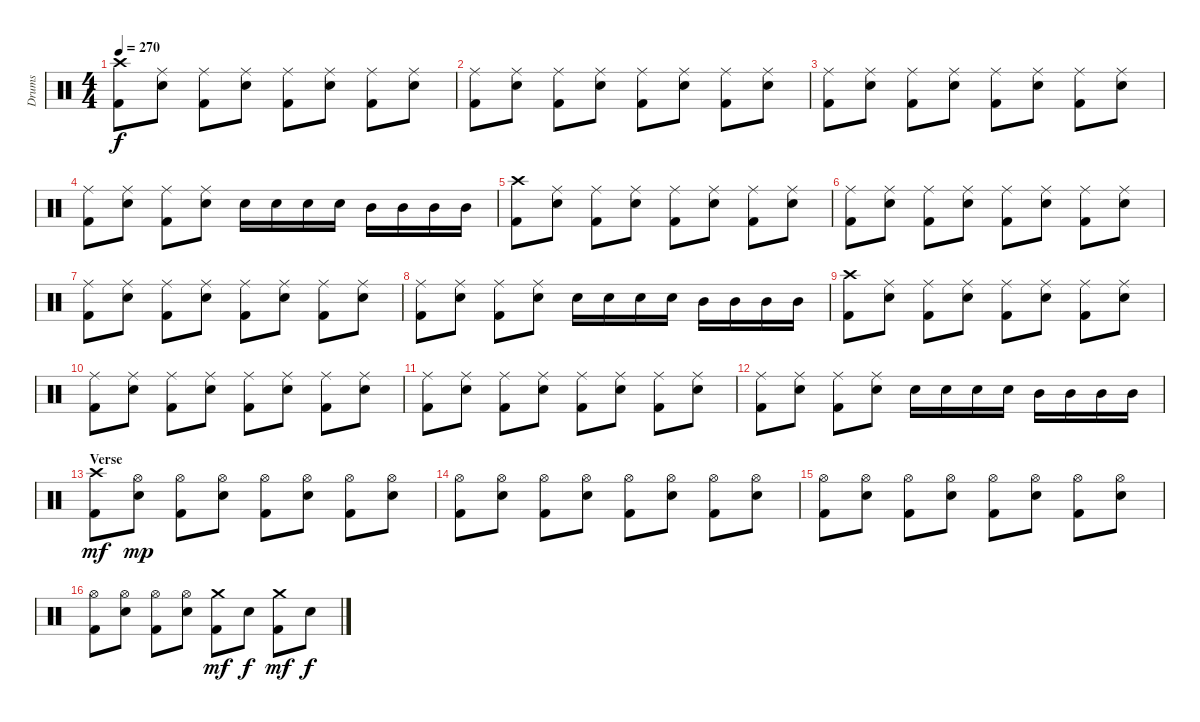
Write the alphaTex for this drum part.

\track ("Drums" "Drums") {instrument percussion}
\staff {score}
\articulation defaults
\ts (4 4)
\tempo 270
\clef neutral
\ks c
("Crash high (hit)" "Kick (hit) 2").8{dy f} ("Ride (middle)" "Snare (hit) 2").8 ("Ride (middle)" "Kick (hit) 2").8 ("Ride (middle)" "Snare (hit) 2").8 ("Ride (middle)" "Kick (hit) 2").8 ("Ride (middle)" "Snare (hit) 2").8 ("Ride (middle)" "Kick (hit) 2").8 ("Ride (middle)" "Snare (hit) 2").8 |
("Ride (middle)" "Kick (hit) 2").8 ("Ride (middle)" "Snare (hit) 2").8 ("Ride (middle)" "Kick (hit) 2").8 ("Ride (middle)" "Snare (hit) 2").8 ("Ride (middle)" "Kick (hit) 2").8 ("Ride (middle)" "Snare (hit) 2").8 ("Ride (middle)" "Kick (hit) 2").8 ("Ride (middle)" "Snare (hit) 2").8 |
("Ride (middle)" "Kick (hit) 2").8 ("Ride (middle)" "Snare (hit) 2").8 ("Ride (middle)" "Kick (hit) 2").8 ("Ride (middle)" "Snare (hit) 2").8 ("Ride (middle)" "Kick (hit) 2").8 ("Ride (middle)" "Snare (hit) 2").8 ("Ride (middle)" "Kick (hit) 2").8 ("Ride (middle)" "Snare (hit) 2").8 |
("Ride (middle)" "Kick (hit) 2").8 ("Ride (middle)" "Snare (hit) 2").8 ("Ride (middle)" "Kick (hit) 2").8 ("Ride (middle)" "Snare (hit) 2").8 "Snare (hit) 2".16 "Snare (hit) 2".16 "Snare (hit) 2".16 "Snare (hit) 2".16 "Mid Tom (hit)".16 "Mid Tom (hit)".16 "Mid Tom (hit)".16 "Mid Tom (hit)".16 |
("Crash high (hit)" "Kick (hit) 2").8 ("Ride (middle)" "Snare (hit) 2").8 ("Ride (middle)" "Kick (hit) 2").8 ("Ride (middle)" "Snare (hit) 2").8 ("Ride (middle)" "Kick (hit) 2").8 ("Ride (middle)" "Snare (hit) 2").8 ("Ride (middle)" "Kick (hit) 2").8 ("Ride (middle)" "Snare (hit) 2").8 |
("Ride (middle)" "Kick (hit) 2").8 ("Ride (middle)" "Snare (hit) 2").8 ("Ride (middle)" "Kick (hit) 2").8 ("Ride (middle)" "Snare (hit) 2").8 ("Ride (middle)" "Kick (hit) 2").8 ("Ride (middle)" "Snare (hit) 2").8 ("Ride (middle)" "Kick (hit) 2").8 ("Ride (middle)" "Snare (hit) 2").8 |
("Ride (middle)" "Kick (hit) 2").8 ("Ride (middle)" "Snare (hit) 2").8 ("Ride (middle)" "Kick (hit) 2").8 ("Ride (middle)" "Snare (hit) 2").8 ("Ride (middle)" "Kick (hit) 2").8 ("Ride (middle)" "Snare (hit) 2").8 ("Ride (middle)" "Kick (hit) 2").8 ("Ride (middle)" "Snare (hit) 2").8 |
("Ride (middle)" "Kick (hit) 2").8 ("Ride (middle)" "Snare (hit) 2").8 ("Ride (middle)" "Kick (hit) 2").8 ("Ride (middle)" "Snare (hit) 2").8 "Snare (hit) 2".16 "Snare (hit) 2".16 "Snare (hit) 2".16 "Snare (hit) 2".16 "Mid Tom (hit)".16 "Mid Tom (hit)".16 "Mid Tom (hit)".16 "Mid Tom (hit)".16 |
("Crash high (hit)" "Kick (hit) 2").8 ("Ride (middle)" "Snare (hit) 2").8 ("Ride (middle)" "Kick (hit) 2").8 ("Ride (middle)" "Snare (hit) 2").8 ("Ride (middle)" "Kick (hit) 2").8 ("Ride (middle)" "Snare (hit) 2").8 ("Ride (middle)" "Kick (hit) 2").8 ("Ride (middle)" "Snare (hit) 2").8 |
("Ride (middle)" "Kick (hit) 2").8 ("Ride (middle)" "Snare (hit) 2").8 ("Ride (middle)" "Kick (hit) 2").8 ("Ride (middle)" "Snare (hit) 2").8 ("Ride (middle)" "Kick (hit) 2").8 ("Ride (middle)" "Snare (hit) 2").8 ("Ride (middle)" "Kick (hit) 2").8 ("Ride (middle)" "Snare (hit) 2").8 |
("Ride (middle)" "Kick (hit) 2").8 ("Ride (middle)" "Snare (hit) 2").8 ("Ride (middle)" "Kick (hit) 2").8 ("Ride (middle)" "Snare (hit) 2").8 ("Ride (middle)" "Kick (hit) 2").8 ("Ride (middle)" "Snare (hit) 2").8 ("Ride (middle)" "Kick (hit) 2").8 ("Ride (middle)" "Snare (hit) 2").8 |
("Ride (middle)" "Kick (hit) 2").8 ("Ride (middle)" "Snare (hit) 2").8 ("Ride (middle)" "Kick (hit) 2").8 ("Ride (middle)" "Snare (hit) 2").8 "Snare (hit) 2".16 "Snare (hit) 2".16 "Snare (hit) 2".16 "Snare (hit) 2".16 "Mid Tom (hit)".16 "Mid Tom (hit)".16 "Mid Tom (hit)".16 "Mid Tom (hit)".16 |
\section ("" "Verse")
("Crash high (hit)" "Kick (hit) 2").8{dy mf} ("Hi-Hat (open)" "Snare (hit) 2").8{dy mp} ("Hi-Hat (open)" "Kick (hit) 2").8 ("Hi-Hat (open)" "Snare (hit) 2").8 ("Hi-Hat (open)" "Kick (hit) 2").8 ("Hi-Hat (open)" "Snare (hit) 2").8 ("Hi-Hat (open)" "Kick (hit) 2").8 ("Hi-Hat (open)" "Snare (hit) 2").8 |
("Hi-Hat (open)" "Kick (hit) 2").8 ("Hi-Hat (open)" "Snare (hit) 2").8 ("Hi-Hat (open)" "Kick (hit) 2").8 ("Hi-Hat (open)" "Snare (hit) 2").8 ("Hi-Hat (open)" "Kick (hit) 2").8 ("Hi-Hat (open)" "Snare (hit) 2").8 ("Hi-Hat (open)" "Kick (hit) 2").8 ("Hi-Hat (open)" "Snare (hit) 2").8 |
("Hi-Hat (open)" "Kick (hit) 2").8 ("Hi-Hat (open)" "Snare (hit) 2").8 ("Hi-Hat (open)" "Kick (hit) 2").8 ("Hi-Hat (open)" "Snare (hit) 2").8 ("Hi-Hat (open)" "Kick (hit) 2").8 ("Hi-Hat (open)" "Snare (hit) 2").8 ("Hi-Hat (open)" "Kick (hit) 2").8 ("Hi-Hat (open)" "Snare (hit) 2").8 |
("Hi-Hat (open)" "Kick (hit) 2").8 ("Hi-Hat (open)" "Snare (hit) 2").8 ("Hi-Hat (open)" "Kick (hit) 2").8 ("Hi-Hat (open)" "Snare (hit) 2").8 ("Crash medium (hit)" "Kick (hit) 2").8{dy mf} "Snare (hit) 2".8{dy f} ("Crash medium (hit)" "Kick (hit) 2").8{dy mf} "Snare (hit) 2".8{dy f}
